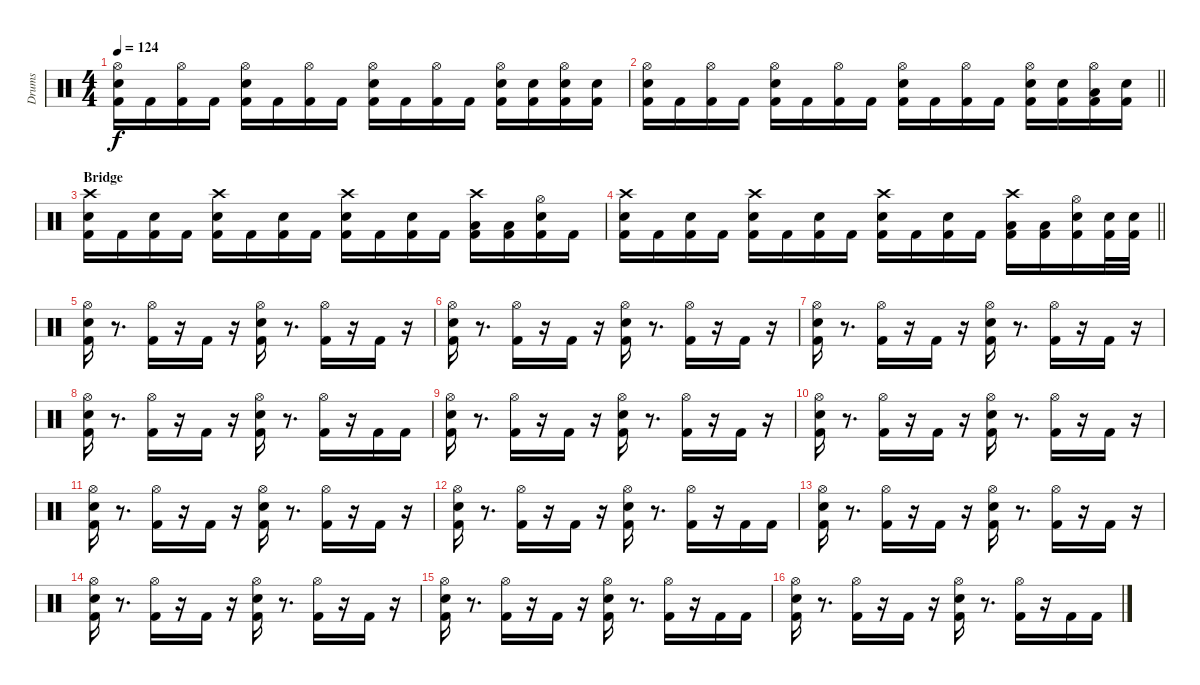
\track ("Drums" "Drums") {instrument percussion}
\staff {score}
\articulation defaults
\ts (4 4)
\tempo 124
\clef neutral
\ks c
("Kick (hit) 2" "Snare (hit) 2" "Hi-Hat (open)").16{dy f} "Kick (hit) 2".16 ("Kick (hit) 2" "Hi-Hat (open)").16 "Kick (hit) 2".16 ("Snare (hit) 2" "Kick (hit) 2" "Hi-Hat (open)").16 "Kick (hit) 2".16 ("Hi-Hat (open)" "Kick (hit) 2").16 "Kick (hit) 2".16 ("Hi-Hat (open)" "Snare (hit) 2" "Kick (hit) 2").16 "Kick (hit) 2".16 ("Hi-Hat (open)" "Kick (hit) 2").16 "Kick (hit) 2".16 ("Snare (hit) 2" "Hi-Hat (open)" "Kick (hit) 2").16 ("Snare (hit) 2" "Kick (hit) 2").16 ("Electric Snare (hit)" "Hi-Hat (open)" "Kick (hit) 2").16 ("Electric Snare (hit)" "Kick (hit) 2").16 |
\barLineRight lightlight
("Kick (hit) 2" "Snare (hit) 2" "Hi-Hat (open)").16 "Kick (hit) 2".16 ("Kick (hit) 2" "Hi-Hat (open)").16 "Kick (hit) 2".16 ("Hi-Hat (open)" "Kick (hit) 2" "Snare (hit) 2").16 "Kick (hit) 2".16 ("Hi-Hat (open)" "Kick (hit) 2").16 "Kick (hit) 2".16 ("Hi-Hat (open)" "Snare (hit) 2" "Kick (hit) 2").16 "Kick (hit) 2".16 ("Hi-Hat (open)" "Kick (hit) 2").16 "Kick (hit) 2".16 ("Hi-Hat (open)" "Snare (hit) 2" "Kick (hit) 2").16 ("Snare (hit) 2" "Kick (hit) 2").16 ("Kick (hit) 2" "Low Floor Tom (hit)" "Hi-Hat (open)").16 ("Kick (hit) 2" "Electric Snare (hit)").16 |
\section ("" "Bridge")
("Crash high (hit)" "Snare (hit) 2" "Kick (hit) 2").16 "Kick (hit) 2".16 ("Snare (hit) 2" "Kick (hit) 2").16 "Kick (hit) 2".16 ("Crash high (hit)" "Snare (hit) 2" "Kick (hit) 2").16 "Kick (hit) 2".16 ("Snare (hit) 2" "Kick (hit) 2").16 "Kick (hit) 2".16 ("Snare (hit) 2" "Crash high (hit)" "Kick (hit) 2").16 "Kick (hit) 2".16 ("Snare (hit) 2" "Kick (hit) 2").16 "Kick (hit) 2".16 ("Kick (hit) 2" "Low Tom (hit)" "Crash high (hit)").16 ("Kick (hit) 2" "Low Floor Tom (hit)").16 ("Kick (hit) 2" "Snare (hit) 2" "Hi-Hat (open)").16 "Kick (hit) 2".16 |
\barLineRight lightlight
("Crash high (hit)" "Snare (hit) 2" "Kick (hit) 2").16 "Kick (hit) 2".16 ("Snare (hit) 2" "Kick (hit) 2").16 "Kick (hit) 2".16 ("Crash high (hit)" "Snare (hit) 2" "Kick (hit) 2").16 "Kick (hit) 2".16 ("Snare (hit) 2" "Kick (hit) 2").16 "Kick (hit) 2".16 ("Snare (hit) 2" "Crash high (hit)" "Kick (hit) 2").16 "Kick (hit) 2".16 ("Snare (hit) 2" "Kick (hit) 2").16 "Kick (hit) 2".16 ("Kick (hit) 2" "Low Tom (hit)" "Crash high (hit)").16 ("Kick (hit) 2" "Low Floor Tom (hit)").16 ("Kick (hit) 2" "Snare (hit) 2" "Hi-Hat (open)").16 ("Kick (hit) 2" "Electric Snare (hit)").32 ("Kick (hit) 2" "Electric Snare (hit)").32 |
\section ("" "")
("Hi-Hat (open)" "Kick (hit) 2" "Snare (hit) 2").16 r.8{d} ("Hi-Hat (open)" "Kick (hit) 2").16 r.16 "Kick (hit) 2".16 r.16 ("Hi-Hat (open)" "Kick (hit) 2" "Snare (hit) 2").16 r.8{d} ("Hi-Hat (open)" "Kick (hit) 2").16 r.16 "Kick (hit) 2".16 r.16 |
("Hi-Hat (open)" "Kick (hit) 2" "Snare (hit) 2").16 r.8{d} ("Hi-Hat (open)" "Kick (hit) 2").16 r.16 "Kick (hit) 2".16 r.16 ("Hi-Hat (open)" "Kick (hit) 2" "Snare (hit) 2").16 r.8{d} ("Hi-Hat (open)" "Kick (hit) 2").16 r.16 "Kick (hit) 2".16 r.16 |
("Hi-Hat (open)" "Kick (hit) 2" "Snare (hit) 2").16 r.8{d} ("Hi-Hat (open)" "Kick (hit) 2").16 r.16 "Kick (hit) 2".16 r.16 ("Hi-Hat (open)" "Kick (hit) 2" "Snare (hit) 2").16 r.8{d} ("Hi-Hat (open)" "Kick (hit) 2").16 r.16 "Kick (hit) 2".16 r.16 |
("Hi-Hat (open)" "Kick (hit) 2" "Snare (hit) 2").16 r.8{d} ("Hi-Hat (open)" "Kick (hit) 2").16 r.16 "Kick (hit) 2".16 r.16 ("Hi-Hat (open)" "Kick (hit) 2" "Snare (hit) 2").16 r.8{d} ("Hi-Hat (open)" "Kick (hit) 2").16 r.16 "Kick (hit) 2".16 "Kick (hit) 2".16 |
("Hi-Hat (open)" "Kick (hit) 2" "Snare (hit) 2").16 r.8{d} ("Hi-Hat (open)" "Kick (hit) 2").16 r.16 "Kick (hit) 2".16 r.16 ("Hi-Hat (open)" "Kick (hit) 2" "Snare (hit) 2").16 r.8{d} ("Hi-Hat (open)" "Kick (hit) 2").16 r.16 "Kick (hit) 2".16 r.16 |
("Hi-Hat (open)" "Kick (hit) 2" "Snare (hit) 2").16 r.8{d} ("Hi-Hat (open)" "Kick (hit) 2").16 r.16 "Kick (hit) 2".16 r.16 ("Hi-Hat (open)" "Kick (hit) 2" "Snare (hit) 2").16 r.8{d} ("Hi-Hat (open)" "Kick (hit) 2").16 r.16 "Kick (hit) 2".16 r.16 |
("Hi-Hat (open)" "Kick (hit) 2" "Snare (hit) 2").16 r.8{d} ("Hi-Hat (open)" "Kick (hit) 2").16 r.16 "Kick (hit) 2".16 r.16 ("Hi-Hat (open)" "Kick (hit) 2" "Snare (hit) 2").16 r.8{d} ("Hi-Hat (open)" "Kick (hit) 2").16 r.16 "Kick (hit) 2".16 r.16 |
("Hi-Hat (open)" "Kick (hit) 2" "Snare (hit) 2").16 r.8{d} ("Hi-Hat (open)" "Kick (hit) 2").16 r.16 "Kick (hit) 2".16 r.16 ("Hi-Hat (open)" "Kick (hit) 2" "Snare (hit) 2").16 r.8{d} ("Hi-Hat (open)" "Kick (hit) 2").16 r.16 "Kick (hit) 2".16 "Kick (hit) 2".16 |
("Hi-Hat (open)" "Kick (hit) 2" "Snare (hit) 2").16 r.8{d} ("Hi-Hat (open)" "Kick (hit) 2").16 r.16 "Kick (hit) 2".16 r.16 ("Hi-Hat (open)" "Kick (hit) 2" "Snare (hit) 2").16 r.8{d} ("Hi-Hat (open)" "Kick (hit) 2").16 r.16 "Kick (hit) 2".16 r.16 |
("Hi-Hat (open)" "Kick (hit) 2" "Snare (hit) 2").16 r.8{d} ("Hi-Hat (open)" "Kick (hit) 2").16 r.16 "Kick (hit) 2".16 r.16 ("Hi-Hat (open)" "Kick (hit) 2" "Snare (hit) 2").16 r.8{d} ("Hi-Hat (open)" "Kick (hit) 2").16 r.16 "Kick (hit) 2".16 r.16 |
("Hi-Hat (open)" "Kick (hit) 2" "Snare (hit) 2").16 r.8{d} ("Hi-Hat (open)" "Kick (hit) 2").16 r.16 "Kick (hit) 2".16 r.16 ("Hi-Hat (open)" "Kick (hit) 2" "Snare (hit) 2").16 r.8{d} ("Hi-Hat (open)" "Kick (hit) 2").16 r.16 "Kick (hit) 2".16 "Kick (hit) 2".16 |
("Hi-Hat (open)" "Kick (hit) 2" "Snare (hit) 2").16 r.8{d} ("Hi-Hat (open)" "Kick (hit) 2").16 r.16 "Kick (hit) 2".16 r.16 ("Hi-Hat (open)" "Kick (hit) 2" "Snare (hit) 2").16 r.8{d} ("Hi-Hat (open)" "Kick (hit) 2").16 r.16 "Kick (hit) 2".16 "Kick (hit) 2".16
